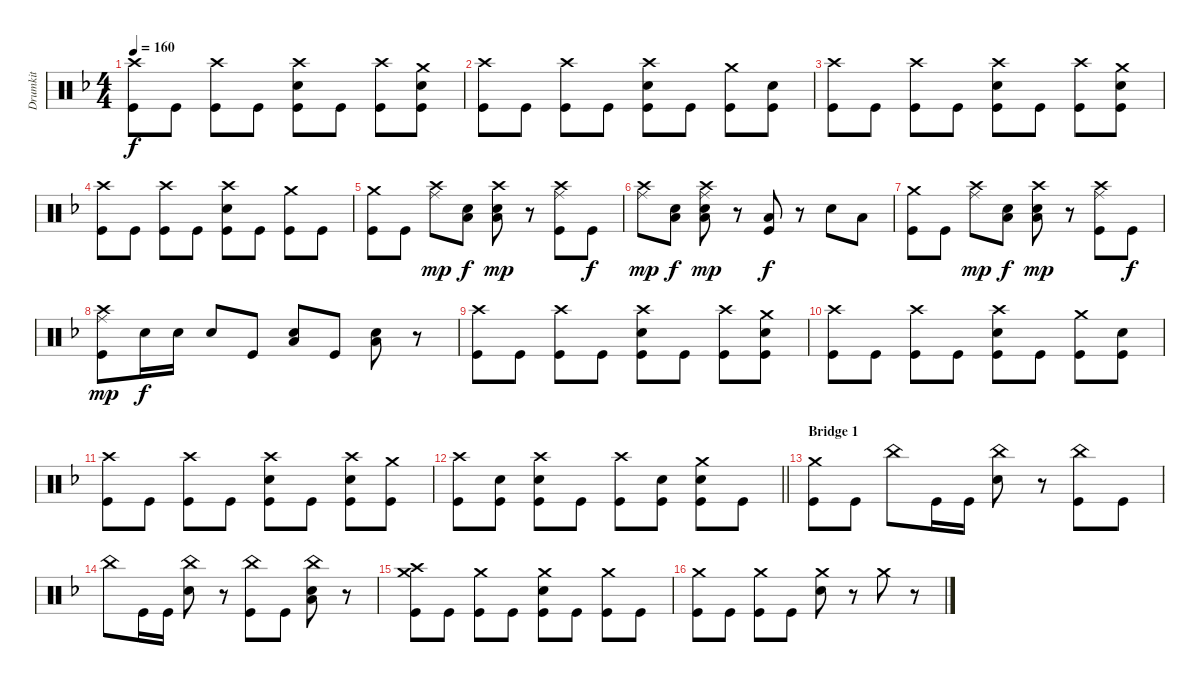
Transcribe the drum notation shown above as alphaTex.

\track ("Drumkit" "Drumkit") {instrument percussion}
\staff {score}
\articulation defaults
\ts (4 4)
\tempo 160
\clef neutral
\ks dminor
("Crash high (hit)" "Kick (hit)").8{dy f} "Kick (hit)".8 ("Crash high (hit)" "Kick (hit)").8 "Kick (hit)".8 ("Crash high (hit)" "Snare (hit) 2" "Kick (hit)").8 "Kick (hit)".8 ("Crash high (hit)" "Kick (hit)").8 ("Crash medium (hit)" "Snare (hit) 2" "Kick (hit)").8 |
("Crash high (hit)" "Kick (hit)").8 "Kick (hit)".8 ("Crash high (hit)" "Kick (hit)").8 "Kick (hit)".8 ("Crash high (hit)" "Snare (hit) 2" "Kick (hit)").8 "Kick (hit)".8 ("Crash medium (hit)" "Kick (hit)").8 ("Snare (hit) 2" "Kick (hit)").8 |
("Crash high (hit)" "Kick (hit)").8 "Kick (hit)".8 ("Crash high (hit)" "Kick (hit)").8 "Kick (hit)".8 ("Crash high (hit)" "Snare (hit) 2" "Kick (hit)").8 "Kick (hit)".8 ("Crash high (hit)" "Kick (hit)").8 ("Crash medium (hit)" "Snare (hit) 2" "Kick (hit)").8 |
("Crash high (hit)" "Kick (hit)").8 "Kick (hit)".8 ("Crash high (hit)" "Kick (hit)").8 "Kick (hit)".8 ("Crash high (hit)" "Snare (hit) 2" "Kick (hit)").8 "Kick (hit)".8 ("Crash medium (hit)" "Kick (hit)").8 "Kick (hit)".8 |
("Crash medium (hit)" "Kick (hit)").8 "Kick (hit)".8 ("Crash high (hit)" "Ride (middle)").8{dy mp} ("Snare (hit) 2" "Low Floor Tom (hit)").8{dy f} ("Crash high (hit)" "Snare (hit) 2" "Low Floor Tom (hit)").8{dy mp} r.8 ("Crash high (hit)" "Ride (middle)" "Kick (hit)").8 "Kick (hit)".8{dy f} |
("Crash high (hit)" "Ride (middle)").8{dy mp} ("Snare (hit) 2" "Low Floor Tom (hit)").8{dy f} ("Crash high (hit)" "Ride (middle)" "Snare (hit) 2" "Low Floor Tom (hit)").8{dy mp} r.8 ("Low Floor Tom (hit)" "Kick (hit)").8{dy f} r.8 "Snare (hit) 2".8 "Low Floor Tom (hit)".8 |
("Crash medium (hit)" "Kick (hit)").8 "Kick (hit)".8 ("Crash high (hit)" "Ride (middle)").8{dy mp} ("Snare (hit) 2" "Low Floor Tom (hit)").8{dy f} ("Crash high (hit)" "Snare (hit) 2" "Low Floor Tom (hit)").8{dy mp} r.8 ("Crash high (hit)" "Ride (middle)" "Kick (hit)").8 "Kick (hit)".8{dy f} |
("Crash high (hit)" "Ride (middle)" "Kick (hit)").8{dy mp} "Snare (hit) 2".16{dy f} "Snare (hit) 2".16 "Snare (hit) 2".8 "Kick (hit)".8 ("Snare (hit) 2" "Low Floor Tom (hit)").8 "Kick (hit)".8 ("Snare (hit) 2" "Low Floor Tom (hit)").8 r.8 |
("Crash high (hit)" "Kick (hit)").8 "Kick (hit)".8 ("Crash high (hit)" "Kick (hit)").8 "Kick (hit)".8 ("Crash high (hit)" "Snare (hit) 2" "Kick (hit)").8 "Kick (hit)".8 ("Crash high (hit)" "Kick (hit)").8 ("Crash medium (hit)" "Snare (hit) 2" "Kick (hit)").8 |
("Crash high (hit)" "Kick (hit)").8 "Kick (hit)".8 ("Crash high (hit)" "Kick (hit)").8 "Kick (hit)".8 ("Crash high (hit)" "Snare (hit) 2" "Kick (hit)").8 "Kick (hit)".8 ("Crash medium (hit)" "Kick (hit)").8 ("Snare (hit) 2" "Kick (hit)").8 |
("Crash high (hit)" "Kick (hit)").8 "Kick (hit)".8 ("Crash high (hit)" "Kick (hit)").8 "Kick (hit)".8 ("Crash high (hit)" "Snare (hit) 2" "Kick (hit)").8 "Kick (hit)".8 ("Crash high (hit)" "Snare (hit) 2" "Kick (hit)").8 ("Crash medium (hit)" "Kick (hit)").8 |
\barLineRight lightlight
("Crash high (hit)" "Kick (hit)").8 ("Snare (hit) 2" "Kick (hit)").8 ("Crash high (hit)" "Snare (hit) 2" "Kick (hit)").8 "Kick (hit)".8 ("Crash high (hit)" "Kick (hit)").8 ("Snare (hit) 2" "Kick (hit)").8 ("Crash medium (hit)" "Snare (hit) 2" "Kick (hit)").8 "Kick (hit)".8 |
\section ("" "Bridge 1")
("Crash medium (hit)" "Kick (hit)").8 "Kick (hit)".8 "China (hit)".8 "Kick (hit)".16 "Kick (hit)".16 ("China (hit)" "Snare (hit) 2").8 r.8 ("China (hit)" "Kick (hit)").8 "Kick (hit)".8 |
"China (hit)".8 "Kick (hit)".16 "Kick (hit)".16 ("China (hit)" "Snare (hit) 2").8 r.8 ("China (hit)" "Kick (hit)").8 "Kick (hit)".8 ("China (hit)" "Snare (hit) 2" "Low Floor Tom (hit)").8 r.8 |
("Crash medium (hit)" "Crash high (hit)" "Kick (hit)").8 "Kick (hit)".8 ("Crash medium (hit)" "Kick (hit)").8 "Kick (hit)".8 ("Crash medium (hit)" "Snare (hit) 2" "Kick (hit)").8 "Kick (hit)".8 ("Crash medium (hit)" "Kick (hit)").8 "Kick (hit)".8 |
("Crash medium (hit)" "Kick (hit)").8 "Kick (hit)".8 ("Crash medium (hit)" "Kick (hit)").8 "Kick (hit)".8 ("Crash medium (hit)" "Snare (hit) 2").8 r.8 "Crash medium (hit)".8 r.8
